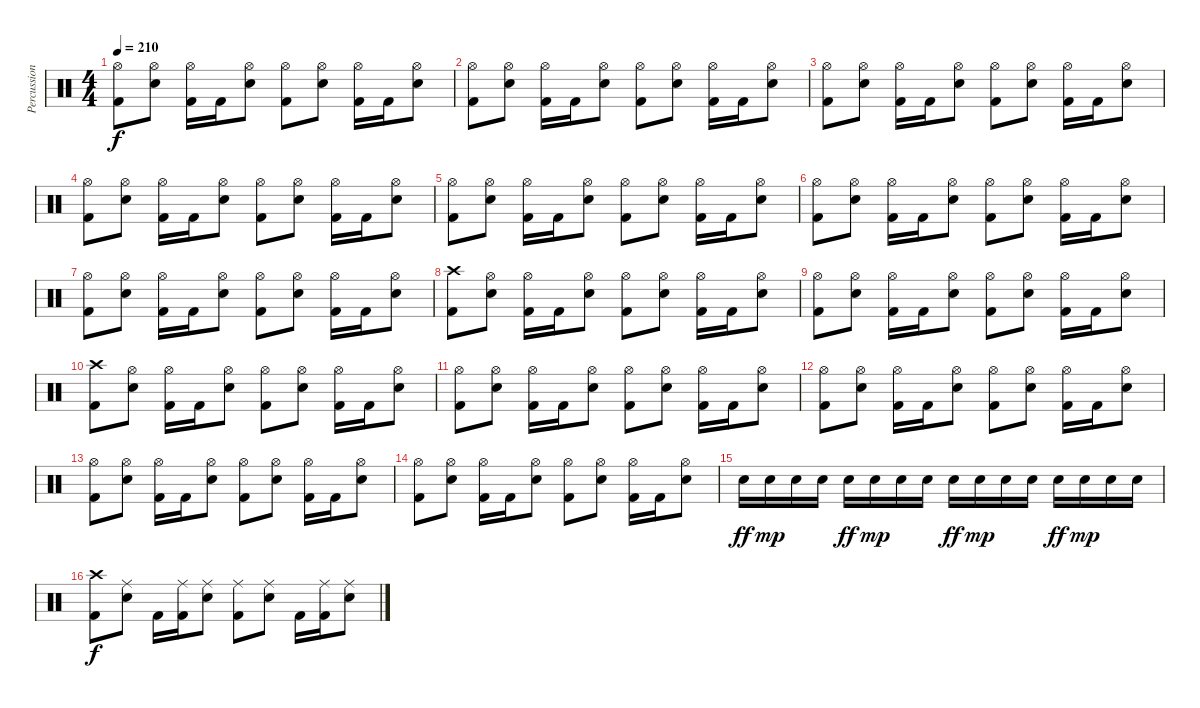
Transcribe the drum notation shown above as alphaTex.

\track ("Percussions" "Percussion") {instrument percussion}
\staff {score}
\articulation defaults
\ts (4 4)
\tempo 210
\clef neutral
\ks c
("Hi-Hat (open)" "Kick (hit) 2").8{dy f} ("Hi-Hat (open)" "Snare (hit) 2").8 ("Hi-Hat (open)" "Kick (hit) 2").16 "Kick (hit) 2".16 ("Hi-Hat (open)" "Snare (hit) 2").8 ("Hi-Hat (open)" "Kick (hit) 2").8 ("Hi-Hat (open)" "Snare (hit) 2").8 ("Hi-Hat (open)" "Kick (hit) 2").16 "Kick (hit) 2".16 ("Hi-Hat (open)" "Snare (hit) 2").8 |
("Hi-Hat (open)" "Kick (hit) 2").8 ("Hi-Hat (open)" "Snare (hit) 2").8 ("Hi-Hat (open)" "Kick (hit) 2").16 "Kick (hit) 2".16 ("Hi-Hat (open)" "Snare (hit) 2").8 ("Hi-Hat (open)" "Kick (hit) 2").8 ("Hi-Hat (open)" "Snare (hit) 2").8 ("Hi-Hat (open)" "Kick (hit) 2").16 "Kick (hit) 2".16 ("Hi-Hat (open)" "Snare (hit) 2").8 |
("Hi-Hat (open)" "Kick (hit) 2").8 ("Hi-Hat (open)" "Snare (hit) 2").8 ("Hi-Hat (open)" "Kick (hit) 2").16 "Kick (hit) 2".16 ("Hi-Hat (open)" "Snare (hit) 2").8 ("Hi-Hat (open)" "Kick (hit) 2").8 ("Hi-Hat (open)" "Snare (hit) 2").8 ("Hi-Hat (open)" "Kick (hit) 2").16 "Kick (hit) 2".16 ("Hi-Hat (open)" "Snare (hit) 2").8 |
("Hi-Hat (open)" "Kick (hit) 2").8 ("Hi-Hat (open)" "Snare (hit) 2").8 ("Hi-Hat (open)" "Kick (hit) 2").16 "Kick (hit) 2".16 ("Hi-Hat (open)" "Snare (hit) 2").8 ("Hi-Hat (open)" "Kick (hit) 2").8 ("Hi-Hat (open)" "Snare (hit) 2").8 ("Hi-Hat (open)" "Kick (hit) 2").16 "Kick (hit) 2".16 ("Hi-Hat (open)" "Snare (hit) 2").8 |
("Hi-Hat (open)" "Kick (hit) 2").8 ("Hi-Hat (open)" "Snare (hit) 2").8 ("Hi-Hat (open)" "Kick (hit) 2").16 "Kick (hit) 2".16 ("Hi-Hat (open)" "Snare (hit) 2").8 ("Hi-Hat (open)" "Kick (hit) 2").8 ("Hi-Hat (open)" "Snare (hit) 2").8 ("Hi-Hat (open)" "Kick (hit) 2").16 "Kick (hit) 2".16 ("Hi-Hat (open)" "Snare (hit) 2").8 |
("Hi-Hat (open)" "Kick (hit) 2").8 ("Hi-Hat (open)" "Snare (hit) 2").8 ("Hi-Hat (open)" "Kick (hit) 2").16 "Kick (hit) 2".16 ("Hi-Hat (open)" "Snare (hit) 2").8 ("Hi-Hat (open)" "Kick (hit) 2").8 ("Hi-Hat (open)" "Snare (hit) 2").8 ("Hi-Hat (open)" "Kick (hit) 2").16 "Kick (hit) 2".16 ("Hi-Hat (open)" "Snare (hit) 2").8 |
("Hi-Hat (open)" "Kick (hit) 2").8 ("Hi-Hat (open)" "Snare (hit) 2").8 ("Hi-Hat (open)" "Kick (hit) 2").16 "Kick (hit) 2".16 ("Hi-Hat (open)" "Snare (hit) 2").8 ("Hi-Hat (open)" "Kick (hit) 2").8 ("Hi-Hat (open)" "Snare (hit) 2").8 ("Hi-Hat (open)" "Kick (hit) 2").16 "Kick (hit) 2".16 ("Hi-Hat (open)" "Snare (hit) 2").8 |
("Crash high (hit)" "Kick (hit) 2").8 ("Hi-Hat (open)" "Snare (hit) 2").8 ("Hi-Hat (open)" "Kick (hit) 2").16 "Kick (hit) 2".16 ("Hi-Hat (open)" "Snare (hit) 2").8 ("Hi-Hat (open)" "Kick (hit) 2").8 ("Hi-Hat (open)" "Snare (hit) 2").8 ("Hi-Hat (open)" "Kick (hit) 2").16 "Kick (hit) 2".16 ("Hi-Hat (open)" "Snare (hit) 2").8 |
("Hi-Hat (open)" "Kick (hit) 2").8 ("Hi-Hat (open)" "Snare (hit) 2").8 ("Hi-Hat (open)" "Kick (hit) 2").16 "Kick (hit) 2".16 ("Hi-Hat (open)" "Snare (hit) 2").8 ("Hi-Hat (open)" "Kick (hit) 2").8 ("Hi-Hat (open)" "Snare (hit) 2").8 ("Hi-Hat (open)" "Kick (hit) 2").16 "Kick (hit) 2".16 ("Hi-Hat (open)" "Snare (hit) 2").8 |
("Crash high (hit)" "Kick (hit) 2").8 ("Hi-Hat (open)" "Snare (hit) 2").8 ("Hi-Hat (open)" "Kick (hit) 2").16 "Kick (hit) 2".16 ("Hi-Hat (open)" "Snare (hit) 2").8 ("Hi-Hat (open)" "Kick (hit) 2").8 ("Hi-Hat (open)" "Snare (hit) 2").8 ("Hi-Hat (open)" "Kick (hit) 2").16 "Kick (hit) 2".16 ("Hi-Hat (open)" "Snare (hit) 2").8 |
("Hi-Hat (open)" "Kick (hit) 2").8 ("Hi-Hat (open)" "Snare (hit) 2").8 ("Hi-Hat (open)" "Kick (hit) 2").16 "Kick (hit) 2".16 ("Hi-Hat (open)" "Snare (hit) 2").8 ("Hi-Hat (open)" "Kick (hit) 2").8 ("Hi-Hat (open)" "Snare (hit) 2").8 ("Hi-Hat (open)" "Kick (hit) 2").16 "Kick (hit) 2".16 ("Hi-Hat (open)" "Snare (hit) 2").8 |
("Hi-Hat (open)" "Kick (hit) 2").8 ("Hi-Hat (open)" "Snare (hit) 2").8 ("Hi-Hat (open)" "Kick (hit) 2").16 "Kick (hit) 2".16 ("Hi-Hat (open)" "Snare (hit) 2").8 ("Hi-Hat (open)" "Kick (hit) 2").8 ("Hi-Hat (open)" "Snare (hit) 2").8 ("Hi-Hat (open)" "Kick (hit) 2").16 "Kick (hit) 2".16 ("Hi-Hat (open)" "Snare (hit) 2").8 |
("Hi-Hat (open)" "Kick (hit) 2").8 ("Hi-Hat (open)" "Snare (hit) 2").8 ("Hi-Hat (open)" "Kick (hit) 2").16 "Kick (hit) 2".16 ("Hi-Hat (open)" "Snare (hit) 2").8 ("Hi-Hat (open)" "Kick (hit) 2").8 ("Hi-Hat (open)" "Snare (hit) 2").8 ("Hi-Hat (open)" "Kick (hit) 2").16 "Kick (hit) 2".16 ("Hi-Hat (open)" "Snare (hit) 2").8 |
("Hi-Hat (open)" "Kick (hit) 2").8 ("Hi-Hat (open)" "Snare (hit) 2").8 ("Hi-Hat (open)" "Kick (hit) 2").16 "Kick (hit) 2".16 ("Hi-Hat (open)" "Snare (hit) 2").8 ("Hi-Hat (open)" "Kick (hit) 2").8 ("Hi-Hat (open)" "Snare (hit) 2").8 ("Hi-Hat (open)" "Kick (hit) 2").16 "Kick (hit) 2".16 ("Hi-Hat (open)" "Snare (hit) 2").8 |
"Snare (hit) 2".16{dy ff} "Snare (hit) 2".16{dy mp} "Snare (hit) 2".16 "Snare (hit) 2".16 "Snare (hit) 2".16{dy ff} "Snare (hit) 2".16{dy mp} "Snare (hit) 2".16 "Snare (hit) 2".16 "Snare (hit) 2".16{dy ff} "Snare (hit) 2".16{dy mp} "Snare (hit) 2".16 "Snare (hit) 2".16 "Snare (hit) 2".16{dy ff} "Snare (hit) 2".16{dy mp} "Snare (hit) 2".16 "Snare (hit) 2".16 |
("Crash high (hit)" "Kick (hit) 2").8{dy f} ("Ride (middle)" "Snare (hit) 2").8 "Kick (hit) 2".16 ("Ride (middle)" "Kick (hit) 2").16 ("Ride (middle)" "Snare (hit) 2").8 ("Ride (middle)" "Kick (hit) 2").8 ("Ride (middle)" "Snare (hit) 2").8 "Kick (hit) 2".16 ("Ride (middle)" "Kick (hit) 2").16 ("Ride (middle)" "Snare (hit) 2").8
